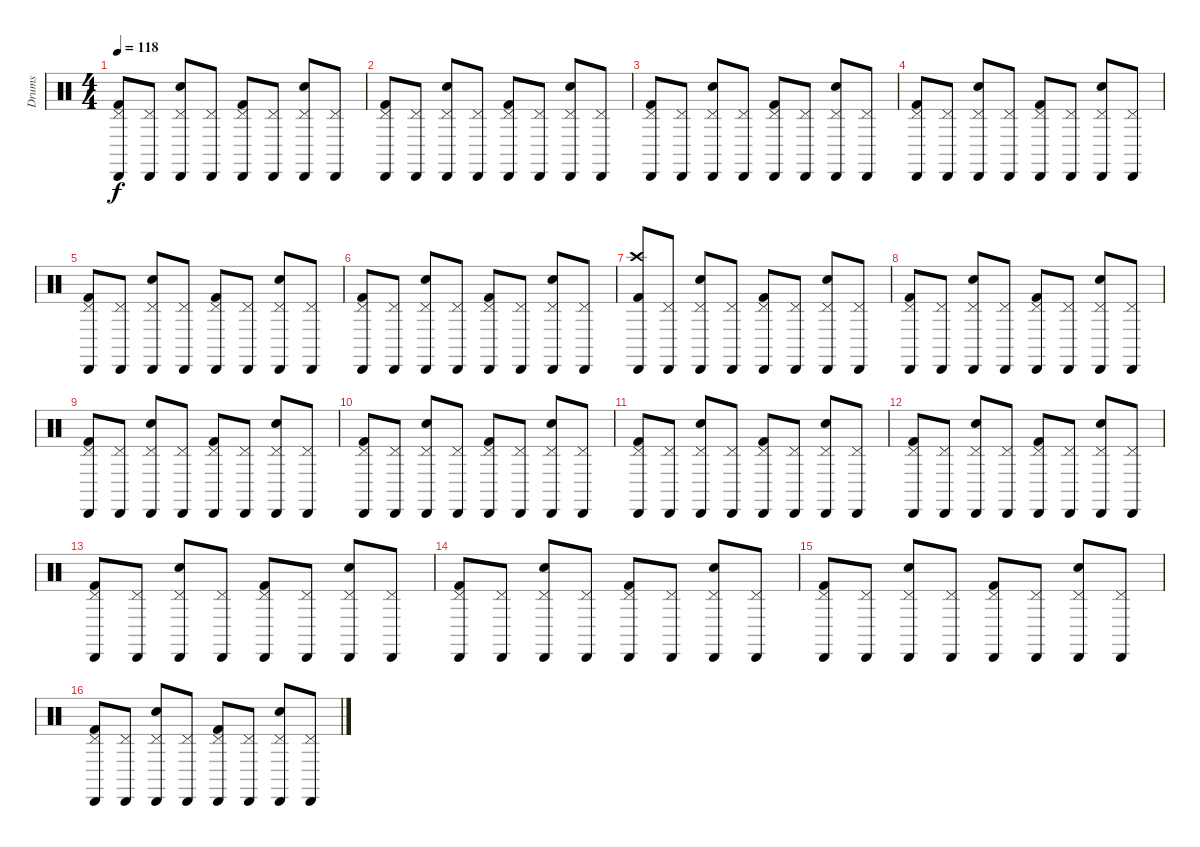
\track ("Drums" "Drums") {instrument percussion}
\staff {score}
\articulation defaults
\ts (4 4)
\tempo 118
\clef neutral
\ks c
("Kick (hit) 2" "Pedal Hi-Hat (hit)" "Cabasa (hit)").8{dy f} ("Pedal Hi-Hat (hit)" "Cabasa (hit)").8 ("Pedal Hi-Hat (hit)" "Electric Snare (hit)" "Cabasa (hit)").8 ("Pedal Hi-Hat (hit)" "Cabasa (hit)").8 ("Kick (hit) 2" "Pedal Hi-Hat (hit)" "Cabasa (hit)").8 ("Pedal Hi-Hat (hit)" "Cabasa (hit)").8 ("Pedal Hi-Hat (hit)" "Electric Snare (hit)" "Cabasa (hit)").8 ("Pedal Hi-Hat (hit)" "Cabasa (hit)").8 |
("Kick (hit) 2" "Pedal Hi-Hat (hit)" "Cabasa (hit)").8 ("Pedal Hi-Hat (hit)" "Cabasa (hit)").8 ("Pedal Hi-Hat (hit)" "Electric Snare (hit)" "Cabasa (hit)").8 ("Pedal Hi-Hat (hit)" "Cabasa (hit)").8 ("Kick (hit) 2" "Pedal Hi-Hat (hit)" "Cabasa (hit)").8 ("Pedal Hi-Hat (hit)" "Cabasa (hit)").8 ("Pedal Hi-Hat (hit)" "Electric Snare (hit)" "Cabasa (hit)").8 ("Pedal Hi-Hat (hit)" "Cabasa (hit)").8 |
("Kick (hit) 2" "Pedal Hi-Hat (hit)" "Cabasa (hit)").8 ("Pedal Hi-Hat (hit)" "Cabasa (hit)").8 ("Pedal Hi-Hat (hit)" "Electric Snare (hit)" "Cabasa (hit)").8 ("Pedal Hi-Hat (hit)" "Cabasa (hit)").8 ("Kick (hit) 2" "Pedal Hi-Hat (hit)" "Cabasa (hit)").8 ("Pedal Hi-Hat (hit)" "Cabasa (hit)").8 ("Pedal Hi-Hat (hit)" "Electric Snare (hit)" "Cabasa (hit)").8 ("Pedal Hi-Hat (hit)" "Cabasa (hit)").8 |
("Kick (hit) 2" "Pedal Hi-Hat (hit)" "Cabasa (hit)").8 ("Pedal Hi-Hat (hit)" "Cabasa (hit)").8 ("Pedal Hi-Hat (hit)" "Electric Snare (hit)" "Cabasa (hit)").8 ("Pedal Hi-Hat (hit)" "Cabasa (hit)").8 ("Kick (hit) 2" "Pedal Hi-Hat (hit)" "Cabasa (hit)").8 ("Pedal Hi-Hat (hit)" "Cabasa (hit)").8 ("Pedal Hi-Hat (hit)" "Electric Snare (hit)" "Cabasa (hit)").8 ("Pedal Hi-Hat (hit)" "Cabasa (hit)").8 |
("Kick (hit) 2" "Pedal Hi-Hat (hit)" "Cabasa (hit)").8 ("Pedal Hi-Hat (hit)" "Cabasa (hit)").8 ("Pedal Hi-Hat (hit)" "Electric Snare (hit)" "Cabasa (hit)").8 ("Pedal Hi-Hat (hit)" "Cabasa (hit)").8 ("Kick (hit) 2" "Pedal Hi-Hat (hit)" "Cabasa (hit)").8 ("Pedal Hi-Hat (hit)" "Cabasa (hit)").8 ("Pedal Hi-Hat (hit)" "Electric Snare (hit)" "Cabasa (hit)").8 ("Pedal Hi-Hat (hit)" "Cabasa (hit)").8 |
("Kick (hit) 2" "Pedal Hi-Hat (hit)" "Cabasa (hit)").8 ("Pedal Hi-Hat (hit)" "Cabasa (hit)").8 ("Pedal Hi-Hat (hit)" "Electric Snare (hit)" "Cabasa (hit)").8 ("Pedal Hi-Hat (hit)" "Cabasa (hit)").8 ("Kick (hit) 2" "Pedal Hi-Hat (hit)" "Cabasa (hit)").8 ("Pedal Hi-Hat (hit)" "Cabasa (hit)").8 ("Pedal Hi-Hat (hit)" "Electric Snare (hit)" "Cabasa (hit)").8 ("Pedal Hi-Hat (hit)" "Cabasa (hit)").8 |
("Kick (hit) 2" "Crash high (hit)" "Cabasa (hit)").8 ("Pedal Hi-Hat (hit)" "Cabasa (hit)").8 ("Pedal Hi-Hat (hit)" "Electric Snare (hit)" "Cabasa (hit)").8 ("Pedal Hi-Hat (hit)" "Cabasa (hit)").8 ("Kick (hit) 2" "Pedal Hi-Hat (hit)" "Cabasa (hit)").8 ("Pedal Hi-Hat (hit)" "Cabasa (hit)").8 ("Pedal Hi-Hat (hit)" "Electric Snare (hit)" "Cabasa (hit)").8 ("Pedal Hi-Hat (hit)" "Cabasa (hit)").8 |
("Kick (hit) 2" "Pedal Hi-Hat (hit)" "Cabasa (hit)").8 ("Pedal Hi-Hat (hit)" "Cabasa (hit)").8 ("Pedal Hi-Hat (hit)" "Electric Snare (hit)" "Cabasa (hit)").8 ("Pedal Hi-Hat (hit)" "Cabasa (hit)").8 ("Kick (hit) 2" "Pedal Hi-Hat (hit)" "Cabasa (hit)").8 ("Pedal Hi-Hat (hit)" "Cabasa (hit)").8 ("Pedal Hi-Hat (hit)" "Electric Snare (hit)" "Cabasa (hit)").8 ("Pedal Hi-Hat (hit)" "Cabasa (hit)").8 |
("Kick (hit) 2" "Pedal Hi-Hat (hit)" "Cabasa (hit)").8 ("Pedal Hi-Hat (hit)" "Cabasa (hit)").8 ("Pedal Hi-Hat (hit)" "Electric Snare (hit)" "Cabasa (hit)").8 ("Pedal Hi-Hat (hit)" "Cabasa (hit)").8 ("Kick (hit) 2" "Pedal Hi-Hat (hit)" "Cabasa (hit)").8 ("Pedal Hi-Hat (hit)" "Cabasa (hit)").8 ("Pedal Hi-Hat (hit)" "Electric Snare (hit)" "Cabasa (hit)").8 ("Pedal Hi-Hat (hit)" "Cabasa (hit)").8 |
("Kick (hit) 2" "Pedal Hi-Hat (hit)" "Cabasa (hit)").8 ("Pedal Hi-Hat (hit)" "Cabasa (hit)").8 ("Pedal Hi-Hat (hit)" "Electric Snare (hit)" "Cabasa (hit)").8 ("Pedal Hi-Hat (hit)" "Cabasa (hit)").8 ("Kick (hit) 2" "Pedal Hi-Hat (hit)" "Cabasa (hit)").8 ("Pedal Hi-Hat (hit)" "Cabasa (hit)").8 ("Pedal Hi-Hat (hit)" "Electric Snare (hit)" "Cabasa (hit)").8 ("Pedal Hi-Hat (hit)" "Cabasa (hit)").8 |
("Kick (hit) 2" "Pedal Hi-Hat (hit)" "Cabasa (hit)").8 ("Pedal Hi-Hat (hit)" "Cabasa (hit)").8 ("Pedal Hi-Hat (hit)" "Electric Snare (hit)" "Cabasa (hit)").8 ("Pedal Hi-Hat (hit)" "Cabasa (hit)").8 ("Kick (hit) 2" "Pedal Hi-Hat (hit)" "Cabasa (hit)").8 ("Pedal Hi-Hat (hit)" "Cabasa (hit)").8 ("Pedal Hi-Hat (hit)" "Electric Snare (hit)" "Cabasa (hit)").8 ("Pedal Hi-Hat (hit)" "Cabasa (hit)").8 |
("Kick (hit) 2" "Pedal Hi-Hat (hit)" "Cabasa (hit)").8 ("Pedal Hi-Hat (hit)" "Cabasa (hit)").8 ("Pedal Hi-Hat (hit)" "Electric Snare (hit)" "Cabasa (hit)").8 ("Pedal Hi-Hat (hit)" "Cabasa (hit)").8 ("Kick (hit) 2" "Pedal Hi-Hat (hit)" "Cabasa (hit)").8 ("Pedal Hi-Hat (hit)" "Cabasa (hit)").8 ("Pedal Hi-Hat (hit)" "Electric Snare (hit)" "Cabasa (hit)").8 ("Pedal Hi-Hat (hit)" "Cabasa (hit)").8 |
("Kick (hit) 2" "Pedal Hi-Hat (hit)" "Cabasa (hit)").8 ("Pedal Hi-Hat (hit)" "Cabasa (hit)").8 ("Pedal Hi-Hat (hit)" "Electric Snare (hit)" "Cabasa (hit)").8 ("Pedal Hi-Hat (hit)" "Cabasa (hit)").8 ("Kick (hit) 2" "Pedal Hi-Hat (hit)" "Cabasa (hit)").8 ("Pedal Hi-Hat (hit)" "Cabasa (hit)").8 ("Pedal Hi-Hat (hit)" "Electric Snare (hit)" "Cabasa (hit)").8 ("Pedal Hi-Hat (hit)" "Cabasa (hit)").8 |
("Kick (hit) 2" "Pedal Hi-Hat (hit)" "Cabasa (hit)").8 ("Pedal Hi-Hat (hit)" "Cabasa (hit)").8 ("Pedal Hi-Hat (hit)" "Electric Snare (hit)" "Cabasa (hit)").8 ("Pedal Hi-Hat (hit)" "Cabasa (hit)").8 ("Kick (hit) 2" "Pedal Hi-Hat (hit)" "Cabasa (hit)").8 ("Pedal Hi-Hat (hit)" "Cabasa (hit)").8 ("Pedal Hi-Hat (hit)" "Electric Snare (hit)" "Cabasa (hit)").8 ("Pedal Hi-Hat (hit)" "Cabasa (hit)").8 |
("Kick (hit) 2" "Pedal Hi-Hat (hit)" "Cabasa (hit)").8 ("Pedal Hi-Hat (hit)" "Cabasa (hit)").8 ("Pedal Hi-Hat (hit)" "Electric Snare (hit)" "Cabasa (hit)").8 ("Pedal Hi-Hat (hit)" "Cabasa (hit)").8 ("Kick (hit) 2" "Pedal Hi-Hat (hit)" "Cabasa (hit)").8 ("Pedal Hi-Hat (hit)" "Cabasa (hit)").8 ("Pedal Hi-Hat (hit)" "Electric Snare (hit)" "Cabasa (hit)").8 ("Pedal Hi-Hat (hit)" "Cabasa (hit)").8 |
("Kick (hit) 2" "Pedal Hi-Hat (hit)" "Cabasa (hit)").8 ("Pedal Hi-Hat (hit)" "Cabasa (hit)").8 ("Pedal Hi-Hat (hit)" "Electric Snare (hit)" "Cabasa (hit)").8 ("Pedal Hi-Hat (hit)" "Cabasa (hit)").8 ("Kick (hit) 2" "Pedal Hi-Hat (hit)" "Cabasa (hit)").8 ("Pedal Hi-Hat (hit)" "Cabasa (hit)").8 ("Pedal Hi-Hat (hit)" "Electric Snare (hit)" "Cabasa (hit)").8 ("Pedal Hi-Hat (hit)" "Cabasa (hit)").8
